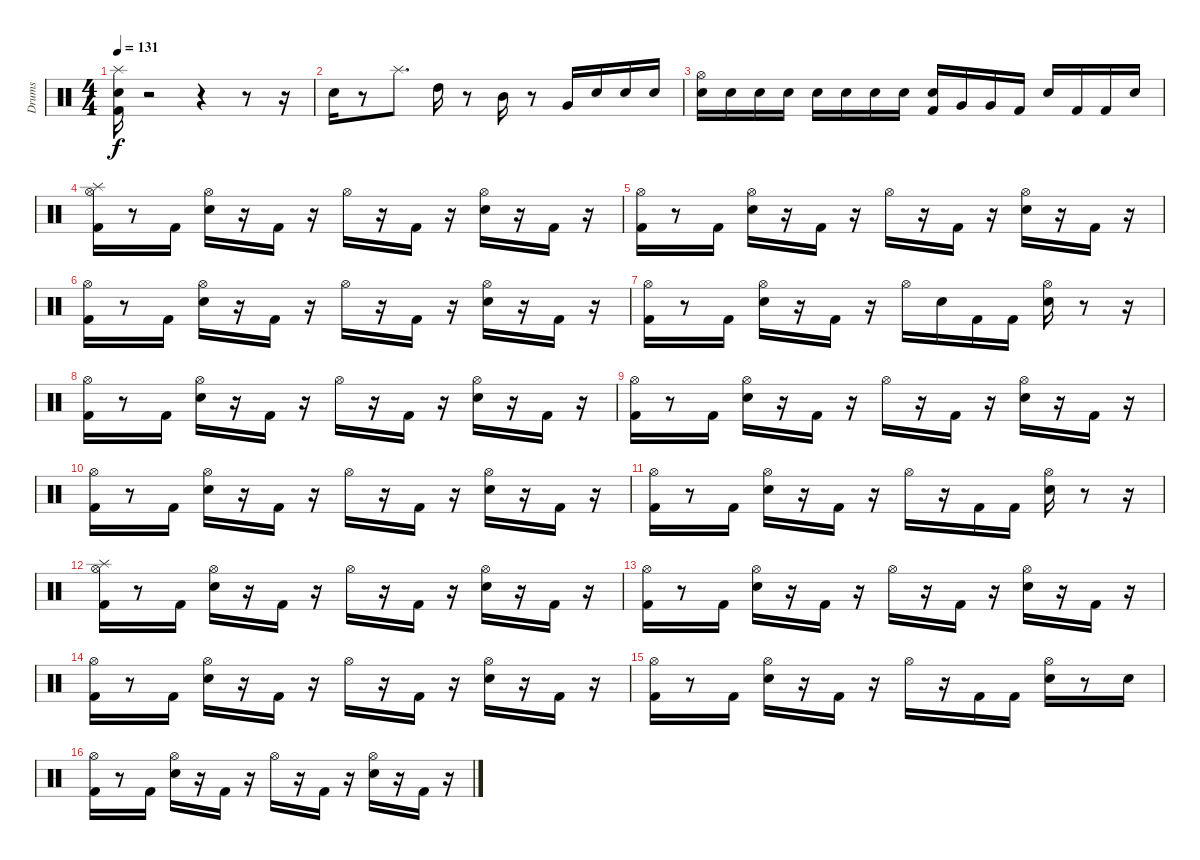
\track ("Drums" "Drums") {instrument percussion}
\staff {score}
\articulation defaults
\ts (4 4)
\tempo 131
\clef neutral
\ks c
("Splash (hit)" "Kick (hit) 2" "Snare (hit) 2").16{dy f} r.2 r.4 r.8 r.16 |
"Snare (hit) 2".16 r.8 "Splash (hit)".8{d} "High Tom (hit)".16 r.8 "Mid Tom (hit)".16 r.8 "Very Low Tom (hit)".16 "Snare (hit) 2".16 "Snare (hit) 2".16 "Snare (hit) 2".16 |
("Hi-Hat (open)" "Snare (hit) 2").16 "Snare (hit) 2".16 "Snare (hit) 2".16 "Snare (hit) 2".16 "Snare (hit) 2".16 "Snare (hit) 2".16 "Snare (hit) 2".16 "Snare (hit) 2".16 ("Kick (hit) 2" "Snare (hit) 2").16 "Very Low Tom (hit)".16 "Very Low Tom (hit)".16 "Kick (hit) 2".16 "Snare (hit) 2".16 "Kick (hit) 2".16 "Kick (hit) 2".16 "Snare (hit) 2".16 |
("Hi-Hat (open)" "Splash (hit)" "Kick (hit) 2").16 r.8 "Kick (hit) 2".16 ("Hi-Hat (open)" "Snare (hit) 2").16 r.16 "Kick (hit) 2".16 r.16 "Hi-Hat (open)".16 r.16 "Kick (hit) 2".16 r.16 ("Hi-Hat (open)" "Snare (hit) 2").16 r.16 "Kick (hit) 2".16 r.16 |
("Hi-Hat (open)" "Kick (hit) 2").16 r.8 "Kick (hit) 2".16 ("Hi-Hat (open)" "Snare (hit) 2").16 r.16 "Kick (hit) 2".16 r.16 "Hi-Hat (open)".16 r.16 "Kick (hit) 2".16 r.16 ("Hi-Hat (open)" "Snare (hit) 2").16 r.16 "Kick (hit) 2".16 r.16 |
("Hi-Hat (open)" "Kick (hit) 2").16 r.8 "Kick (hit) 2".16 ("Hi-Hat (open)" "Snare (hit) 2").16 r.16 "Kick (hit) 2".16 r.16 "Hi-Hat (open)".16 r.16 "Kick (hit) 2".16 r.16 ("Hi-Hat (open)" "Snare (hit) 2").16 r.16 "Kick (hit) 2".16 r.16 |
("Hi-Hat (open)" "Kick (hit) 2").16 r.8 "Kick (hit) 2".16 ("Hi-Hat (open)" "Snare (hit) 2").16 r.16 "Kick (hit) 2".16 r.16 "Hi-Hat (open)".16 "Snare (hit) 2".16 "Kick (hit) 2".16 "Kick (hit) 2".16 ("Hi-Hat (open)" "Snare (hit) 2").16 r.8 r.16 |
("Hi-Hat (open)" "Kick (hit) 2").16 r.8 "Kick (hit) 2".16 ("Hi-Hat (open)" "Snare (hit) 2").16 r.16 "Kick (hit) 2".16 r.16 "Hi-Hat (open)".16 r.16 "Kick (hit) 2".16 r.16 ("Hi-Hat (open)" "Snare (hit) 2").16 r.16 "Kick (hit) 2".16 r.16 |
("Hi-Hat (open)" "Kick (hit) 2").16 r.8 "Kick (hit) 2".16 ("Hi-Hat (open)" "Snare (hit) 2").16 r.16 "Kick (hit) 2".16 r.16 "Hi-Hat (open)".16 r.16 "Kick (hit) 2".16 r.16 ("Hi-Hat (open)" "Snare (hit) 2").16 r.16 "Kick (hit) 2".16 r.16 |
("Hi-Hat (open)" "Kick (hit) 2").16 r.8 "Kick (hit) 2".16 ("Hi-Hat (open)" "Snare (hit) 2").16 r.16 "Kick (hit) 2".16 r.16 "Hi-Hat (open)".16 r.16 "Kick (hit) 2".16 r.16 ("Hi-Hat (open)" "Snare (hit) 2").16 r.16 "Kick (hit) 2".16 r.16 |
("Hi-Hat (open)" "Kick (hit) 2").16 r.8 "Kick (hit) 2".16 ("Hi-Hat (open)" "Snare (hit) 2").16 r.16 "Kick (hit) 2".16 r.16 "Hi-Hat (open)".16 r.16 "Kick (hit) 2".16 "Kick (hit) 2".16 ("Hi-Hat (open)" "Snare (hit) 2").16 r.8 r.16 |
("Hi-Hat (open)" "Splash (hit)" "Kick (hit) 2").16 r.8 "Kick (hit) 2".16 ("Hi-Hat (open)" "Snare (hit) 2").16 r.16 "Kick (hit) 2".16 r.16 "Hi-Hat (open)".16 r.16 "Kick (hit) 2".16 r.16 ("Hi-Hat (open)" "Snare (hit) 2").16 r.16 "Kick (hit) 2".16 r.16 |
("Hi-Hat (open)" "Kick (hit) 2").16 r.8 "Kick (hit) 2".16 ("Hi-Hat (open)" "Snare (hit) 2").16 r.16 "Kick (hit) 2".16 r.16 "Hi-Hat (open)".16 r.16 "Kick (hit) 2".16 r.16 ("Hi-Hat (open)" "Snare (hit) 2").16 r.16 "Kick (hit) 2".16 r.16 |
("Hi-Hat (open)" "Kick (hit) 2").16 r.8 "Kick (hit) 2".16 ("Hi-Hat (open)" "Snare (hit) 2").16 r.16 "Kick (hit) 2".16 r.16 "Hi-Hat (open)".16 r.16 "Kick (hit) 2".16 r.16 ("Hi-Hat (open)" "Snare (hit) 2").16 r.16 "Kick (hit) 2".16 r.16 |
("Hi-Hat (open)" "Kick (hit) 2").16 r.8 "Kick (hit) 2".16 ("Hi-Hat (open)" "Snare (hit) 2").16 r.16 "Kick (hit) 2".16 r.16 "Hi-Hat (open)".16 r.16 "Kick (hit) 2".16 "Kick (hit) 2".16 ("Hi-Hat (open)" "Snare (hit) 2").16 r.8 "Snare (hit) 2".16 |
("Hi-Hat (open)" "Kick (hit) 2").16 r.8 "Kick (hit) 2".16 ("Hi-Hat (open)" "Snare (hit) 2").16 r.16 "Kick (hit) 2".16 r.16 "Hi-Hat (open)".16 r.16 "Kick (hit) 2".16 r.16 ("Hi-Hat (open)" "Snare (hit) 2").16 r.16 "Kick (hit) 2".16 r.16
